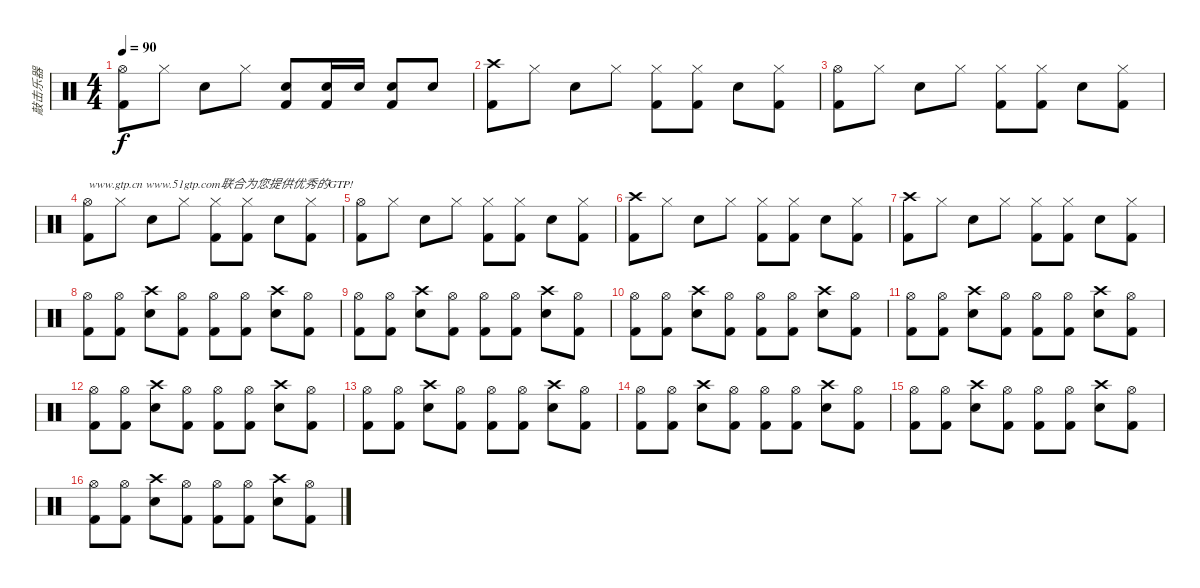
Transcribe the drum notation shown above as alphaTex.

\track ("敲击乐器" "敲击乐器") {instrument percussion bank 8}
\staff {score}
\articulation defaults
\ts (4 4)
\tempo 90
\clef neutral
\ks c
("Hi-Hat (open)" "Kick (hit) 2").8{dy f} "Hi-Hat (closed)".8 "Electric Snare (hit)".8 "Hi-Hat (closed)".8 ("Electric Snare (hit)" "Kick (hit) 2").8 ("Electric Snare (hit)" "Kick (hit) 2").16 "Electric Snare (hit)".16 ("Electric Snare (hit)" "Kick (hit) 2").8 "Electric Snare (hit)".8 |
("Crash high (hit)" "Kick (hit) 2").8 "Hi-Hat (closed)".8 "Electric Snare (hit)".8 "Hi-Hat (closed)".8 ("Hi-Hat (closed)" "Kick (hit) 2").8 ("Hi-Hat (closed)" "Kick (hit) 2").8 "Electric Snare (hit)".8 ("Hi-Hat (closed)" "Kick (hit) 2").8 |
("Hi-Hat (open)" "Kick (hit) 2").8 "Hi-Hat (closed)".8 "Electric Snare (hit)".8 "Hi-Hat (closed)".8 ("Hi-Hat (closed)" "Kick (hit) 2").8 ("Hi-Hat (closed)" "Kick (hit) 2").8 "Electric Snare (hit)".8 ("Hi-Hat (closed)" "Kick (hit) 2").8 |
("Hi-Hat (open)" "Kick (hit) 2").8{txt "www.gtp.cn www.51gtp.com联合为您提供优秀的GTP!"} "Hi-Hat (closed)".8 "Electric Snare (hit)".8 "Hi-Hat (closed)".8 ("Hi-Hat (closed)" "Kick (hit) 2").8 ("Hi-Hat (closed)" "Kick (hit) 2").8 "Electric Snare (hit)".8 ("Hi-Hat (closed)" "Kick (hit) 2").8 |
("Hi-Hat (open)" "Kick (hit) 2").8 "Hi-Hat (closed)".8 "Electric Snare (hit)".8 "Hi-Hat (closed)".8 ("Hi-Hat (closed)" "Kick (hit) 2").8 ("Hi-Hat (closed)" "Kick (hit) 2").8 "Electric Snare (hit)".8 ("Hi-Hat (closed)" "Kick (hit) 2").8 |
("Crash high (hit)" "Kick (hit) 2").8 "Hi-Hat (closed)".8 "Electric Snare (hit)".8 "Hi-Hat (closed)".8 ("Hi-Hat (closed)" "Kick (hit) 2").8 ("Hi-Hat (closed)" "Kick (hit) 2").8 "Electric Snare (hit)".8 ("Hi-Hat (closed)" "Kick (hit) 2").8 |
("Crash high (hit)" "Kick (hit) 2").8 "Hi-Hat (closed)".8 "Electric Snare (hit)".8 "Hi-Hat (closed)".8 ("Hi-Hat (closed)" "Kick (hit) 2").8 ("Hi-Hat (closed)" "Kick (hit) 2").8 "Electric Snare (hit)".8 ("Hi-Hat (closed)" "Kick (hit) 2").8 |
("Hi-Hat (open)" "Kick (hit) 2").8 ("Hi-Hat (open)" "Kick (hit) 2").8 ("Crash high (hit)" "Electric Snare (hit)").8 ("Hi-Hat (open)" "Kick (hit) 2").8 ("Hi-Hat (open)" "Kick (hit) 2").8 ("Hi-Hat (open)" "Kick (hit) 2").8 ("Crash high (hit)" "Electric Snare (hit)").8 ("Hi-Hat (open)" "Kick (hit) 2").8 |
("Hi-Hat (open)" "Kick (hit) 2").8 ("Hi-Hat (open)" "Kick (hit) 2").8 ("Crash high (hit)" "Electric Snare (hit)").8 ("Hi-Hat (open)" "Kick (hit) 2").8 ("Hi-Hat (open)" "Kick (hit) 2").8 ("Hi-Hat (open)" "Kick (hit) 2").8 ("Crash high (hit)" "Electric Snare (hit)").8 ("Hi-Hat (open)" "Kick (hit) 2").8 |
("Hi-Hat (open)" "Kick (hit) 2").8 ("Hi-Hat (open)" "Kick (hit) 2").8 ("Crash high (hit)" "Electric Snare (hit)").8 ("Hi-Hat (open)" "Kick (hit) 2").8 ("Hi-Hat (open)" "Kick (hit) 2").8 ("Hi-Hat (open)" "Kick (hit) 2").8 ("Crash high (hit)" "Electric Snare (hit)").8 ("Hi-Hat (open)" "Kick (hit) 2").8 |
("Hi-Hat (open)" "Kick (hit) 2").8 ("Hi-Hat (open)" "Kick (hit) 2").8 ("Crash high (hit)" "Electric Snare (hit)").8 ("Hi-Hat (open)" "Kick (hit) 2").8 ("Hi-Hat (open)" "Kick (hit) 2").8 ("Hi-Hat (open)" "Kick (hit) 2").8 ("Crash high (hit)" "Electric Snare (hit)").8 ("Hi-Hat (open)" "Kick (hit) 2").8 |
("Hi-Hat (open)" "Kick (hit) 2").8 ("Hi-Hat (open)" "Kick (hit) 2").8 ("Crash high (hit)" "Electric Snare (hit)").8 ("Hi-Hat (open)" "Kick (hit) 2").8 ("Hi-Hat (open)" "Kick (hit) 2").8 ("Hi-Hat (open)" "Kick (hit) 2").8 ("Crash high (hit)" "Electric Snare (hit)").8 ("Hi-Hat (open)" "Kick (hit) 2").8 |
("Hi-Hat (open)" "Kick (hit) 2").8 ("Hi-Hat (open)" "Kick (hit) 2").8 ("Crash high (hit)" "Electric Snare (hit)").8 ("Hi-Hat (open)" "Kick (hit) 2").8 ("Hi-Hat (open)" "Kick (hit) 2").8 ("Hi-Hat (open)" "Kick (hit) 2").8 ("Crash high (hit)" "Electric Snare (hit)").8 ("Hi-Hat (open)" "Kick (hit) 2").8 |
("Hi-Hat (open)" "Kick (hit) 2").8 ("Hi-Hat (open)" "Kick (hit) 2").8 ("Crash high (hit)" "Electric Snare (hit)").8 ("Hi-Hat (open)" "Kick (hit) 2").8 ("Hi-Hat (open)" "Kick (hit) 2").8 ("Hi-Hat (open)" "Kick (hit) 2").8 ("Crash high (hit)" "Electric Snare (hit)").8 ("Hi-Hat (open)" "Kick (hit) 2").8 |
("Hi-Hat (open)" "Kick (hit) 2").8 ("Hi-Hat (open)" "Kick (hit) 2").8 ("Crash high (hit)" "Electric Snare (hit)").8 ("Hi-Hat (open)" "Kick (hit) 2").8 ("Hi-Hat (open)" "Kick (hit) 2").8 ("Hi-Hat (open)" "Kick (hit) 2").8 ("Crash high (hit)" "Electric Snare (hit)").8 ("Hi-Hat (open)" "Kick (hit) 2").8 |
("Hi-Hat (open)" "Kick (hit) 2").8 ("Hi-Hat (open)" "Kick (hit) 2").8 ("Crash high (hit)" "Electric Snare (hit)").8 ("Hi-Hat (open)" "Kick (hit) 2").8 ("Hi-Hat (open)" "Kick (hit) 2").8 ("Hi-Hat (open)" "Kick (hit) 2").8 ("Crash high (hit)" "Electric Snare (hit)").8 ("Hi-Hat (open)" "Kick (hit) 2").8
